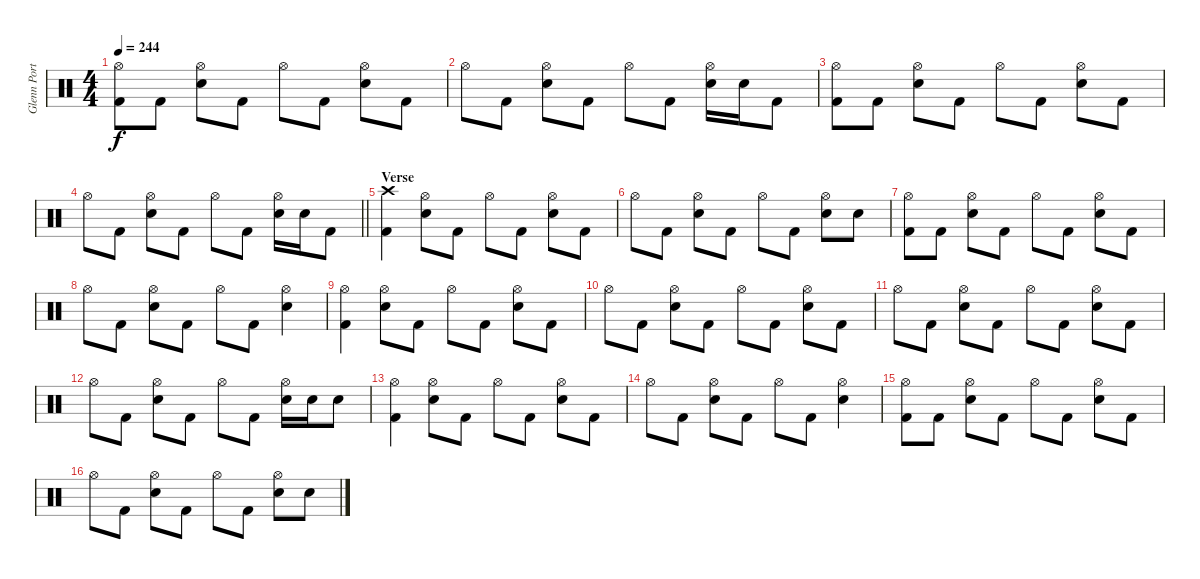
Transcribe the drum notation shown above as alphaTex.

\track ("Glenn Porter - Drums" "Glenn Port") {instrument percussion}
\staff {score}
\articulation defaults
\ts (4 4)
\tempo 244
\clef neutral
\ks c
("Kick (hit) 2" "Hi-Hat (open)").8{dy f} "Kick (hit) 2".8 ("Snare (hit) 2" "Hi-Hat (open)").8 "Kick (hit) 2".8 "Hi-Hat (open)".8 "Kick (hit) 2".8 ("Snare (hit) 2" "Hi-Hat (open)").8 "Kick (hit) 2".8 |
"Hi-Hat (open)".8 "Kick (hit) 2".8 ("Snare (hit) 2" "Hi-Hat (open)").8 "Kick (hit) 2".8 "Hi-Hat (open)".8 "Kick (hit) 2".8 ("Snare (hit) 2" "Hi-Hat (open)").16 "Snare (hit) 2".16 "Kick (hit) 2".8 |
("Kick (hit) 2" "Hi-Hat (open)").8 "Kick (hit) 2".8 ("Snare (hit) 2" "Hi-Hat (open)").8 "Kick (hit) 2".8 "Hi-Hat (open)".8 "Kick (hit) 2".8 ("Snare (hit) 2" "Hi-Hat (open)").8 "Kick (hit) 2".8 |
\barLineRight lightlight "Hi-Hat (open)".8 "Kick (hit) 2".8
("Snare (hit) 2" "Hi-Hat (open)").8 "Kick (hit) 2".8 "Hi-Hat (open)".8 "Kick (hit) 2".8 ("Snare (hit) 2" "Hi-Hat (open)").16 "Snare (hit) 2".16 "Kick (hit) 2".8 |
\section ("" "Verse")
("Kick (hit) 2" "Crash high (hit)").4 ("Snare (hit) 2" "Hi-Hat (open)").8 "Kick (hit) 2".8 "Hi-Hat (open)".8 "Kick (hit) 2".8 ("Snare (hit) 2" "Hi-Hat (open)").8 "Kick (hit) 2".8 |
"Hi-Hat (open)".8 "Kick (hit) 2".8 ("Snare (hit) 2" "Hi-Hat (open)").8 "Kick (hit) 2".8 "Hi-Hat (open)".8 "Kick (hit) 2".8 ("Snare (hit) 2" "Hi-Hat (open)").8 "Snare (hit) 2".8 |
("Kick (hit) 2" "Hi-Hat (open)").8 "Kick (hit) 2".8 ("Snare (hit) 2" "Hi-Hat (open)").8 "Kick (hit) 2".8 "Hi-Hat (open)".8 "Kick (hit) 2".8 ("Snare (hit) 2" "Hi-Hat (open)").8 "Kick (hit) 2".8 |
"Hi-Hat (open)".8 "Kick (hit) 2".8 ("Snare (hit) 2" "Hi-Hat (open)").8 "Kick (hit) 2".8 "Hi-Hat (open)".8 "Kick (hit) 2".8 ("Snare (hit) 2" "Hi-Hat (open)").4 |
("Kick (hit) 2" "Hi-Hat (open)").4 ("Snare (hit) 2" "Hi-Hat (open)").8 "Kick (hit) 2".8 "Hi-Hat (open)".8 "Kick (hit) 2".8 ("Snare (hit) 2" "Hi-Hat (open)").8 "Kick (hit) 2".8 |
"Hi-Hat (open)".8 "Kick (hit) 2".8 ("Snare (hit) 2" "Hi-Hat (open)").8 "Kick (hit) 2".8 "Hi-Hat (open)".8 "Kick (hit) 2".8 ("Snare (hit) 2" "Hi-Hat (open)").8 "Kick (hit) 2".8 |
"Hi-Hat (open)".8 "Kick (hit) 2".8 ("Snare (hit) 2" "Hi-Hat (open)").8 "Kick (hit) 2".8 "Hi-Hat (open)".8 "Kick (hit) 2".8 ("Snare (hit) 2" "Hi-Hat (open)").8 "Kick (hit) 2".8 |
"Hi-Hat (open)".8 "Kick (hit) 2".8 ("Snare (hit) 2" "Hi-Hat (open)").8 "Kick (hit) 2".8 "Hi-Hat (open)".8 "Kick (hit) 2".8 ("Snare (hit) 2" "Hi-Hat (open)").16 "Snare (hit) 2".16 "Snare (hit) 2".8 |
("Kick (hit) 2" "Hi-Hat (open)").4 ("Snare (hit) 2" "Hi-Hat (open)").8 "Kick (hit) 2".8 "Hi-Hat (open)".8 "Kick (hit) 2".8 ("Snare (hit) 2" "Hi-Hat (open)").8 "Kick (hit) 2".8 |
"Hi-Hat (open)".8 "Kick (hit) 2".8 ("Snare (hit) 2" "Hi-Hat (open)").8 "Kick (hit) 2".8 "Hi-Hat (open)".8 "Kick (hit) 2".8 ("Snare (hit) 2" "Hi-Hat (open)").4 |
("Kick (hit) 2" "Hi-Hat (open)").8 "Kick (hit) 2".8 ("Snare (hit) 2" "Hi-Hat (open)").8 "Kick (hit) 2".8 "Hi-Hat (open)".8 "Kick (hit) 2".8 ("Snare (hit) 2" "Hi-Hat (open)").8 "Kick (hit) 2".8 |
"Hi-Hat (open)".8 "Kick (hit) 2".8 ("Snare (hit) 2" "Hi-Hat (open)").8 "Kick (hit) 2".8 "Hi-Hat (open)".8 "Kick (hit) 2".8 ("Snare (hit) 2" "Hi-Hat (open)").8 "Snare (hit) 2".8
